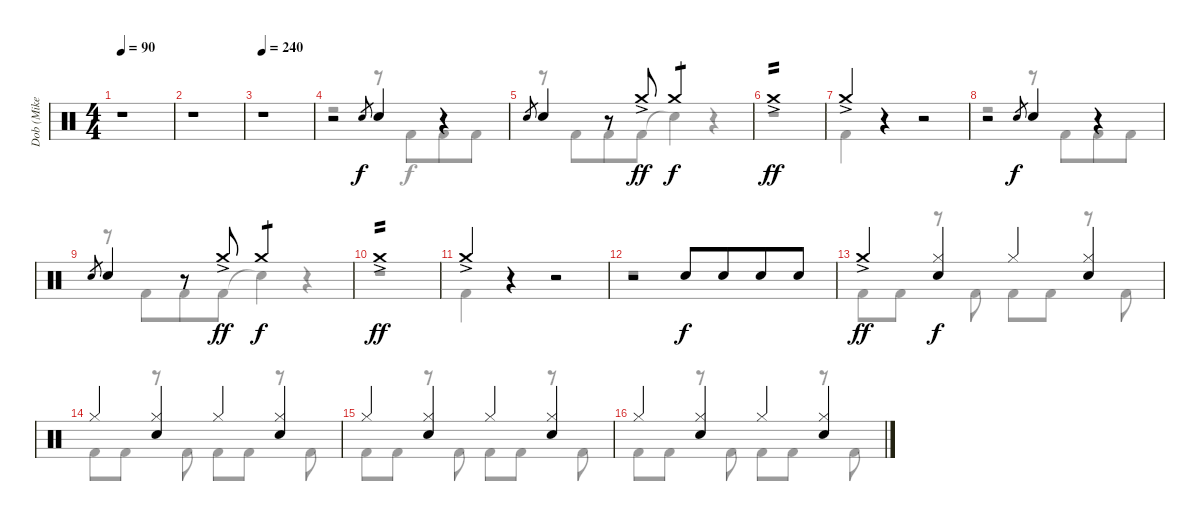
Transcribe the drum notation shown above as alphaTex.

\track ("Dob (Mike Terrana)" "Dob (Mike ") {instrument percussion}
\staff {score}
\articulation defaults
\voice
\ts (4 4)
\tempo 90
\clef neutral
\ks c
r.1{dy f} |
r.1 |
\tempo 240
r.1 |
r.2 "Electric Snare (hit)".8{gr} "Electric Snare (hit)".4 r.4 |
"Electric Snare (hit)".8{gr} "Electric Snare (hit)".4 r.8 "Crash medium (hit)"{ac}.8{dy ff} "Crash medium (hit)".2{tp 1 dy f} |
"Crash medium (hit)"{ac}.1{tp 2 dy ff} |
"Crash medium (hit)"{ac}.4 r.4 r.2 |
r.2 "Electric Snare (hit)".8{gr dy f} "Electric Snare (hit)".4 r.4 |
"Electric Snare (hit)".8{gr} "Electric Snare (hit)".4 r.8 "Crash medium (hit)"{ac}.8{dy ff} "Crash medium (hit)".2{tp 1 dy f} |
"Crash medium (hit)"{ac}.1{tp 2 dy ff} |
"Crash medium (hit)"{ac}.4 r.4 r.2 |
r.2 "Electric Snare (hit)".8{dy f} "Electric Snare (hit)".8{beam merge} "Electric Snare (hit)".8 "Electric Snare (hit)".8 |
"Crash medium (hit)"{ac}.4{dy ff} ("Hi-Hat (closed)" "Electric Snare (hit)").4{dy f} "Hi-Hat (closed)".4 ("Hi-Hat (closed)" "Electric Snare (hit)").4 |
"Hi-Hat (closed)".4 ("Hi-Hat (closed)" "Electric Snare (hit)").4 "Hi-Hat (closed)".4 ("Hi-Hat (closed)" "Electric Snare (hit)").4 |
"Hi-Hat (closed)".4 ("Hi-Hat (closed)" "Electric Snare (hit)").4 "Hi-Hat (closed)".4 ("Hi-Hat (closed)" "Electric Snare (hit)").4 |
"Hi-Hat (closed)".4 ("Hi-Hat (closed)" "Electric Snare (hit)").4 "Hi-Hat (closed)".4 ("Hi-Hat (closed)" "Electric Snare (hit)").4
\voice
\clef neutral
\ottava regular
\simile none
\ks c
r.1{dy f} |
r.1 |
r.1 |
r.2 r.8 "Kick (hit) 2".8{beam merge} "Kick (hit) 2".8 "Kick (hit) 2".8 |
r.8 "Kick (hit) 2".8{beam merge} "Kick (hit) 2".8 "Kick (hit) 2".8 "Snare (hit)"{t}.4 r.4 |
r.1 |
"Kick (hit) 2".4 r.4 r.2 |
r.2 r.8 "Kick (hit) 2".8{beam merge} "Kick (hit) 2".8 "Kick (hit) 2".8 |
r.8 "Kick (hit) 2".8{beam merge} "Kick (hit) 2".8 "Kick (hit) 2".8 "Snare (hit)"{t}.4 r.4 |
r.1 |
"Kick (hit) 2".4 r.4 r.2 |
r.1 |
"Kick (hit) 2".8 "Kick (hit) 2".8 r.8 "Kick (hit) 2".8 "Kick (hit) 2".8 "Kick (hit) 2".8 r.8 "Kick (hit) 2".8 |
"Kick (hit) 2".8 "Kick (hit) 2".8 r.8 "Kick (hit) 2".8 "Kick (hit) 2".8 "Kick (hit) 2".8 r.8 "Kick (hit) 2".8 |
"Kick (hit) 2".8 "Kick (hit) 2".8 r.8 "Kick (hit) 2".8 "Kick (hit) 2".8 "Kick (hit) 2".8 r.8 "Kick (hit) 2".8 |
"Kick (hit) 2".8 "Kick (hit) 2".8 r.8 "Kick (hit) 2".8 "Kick (hit) 2".8 "Kick (hit) 2".8 r.8 "Kick (hit) 2".8
